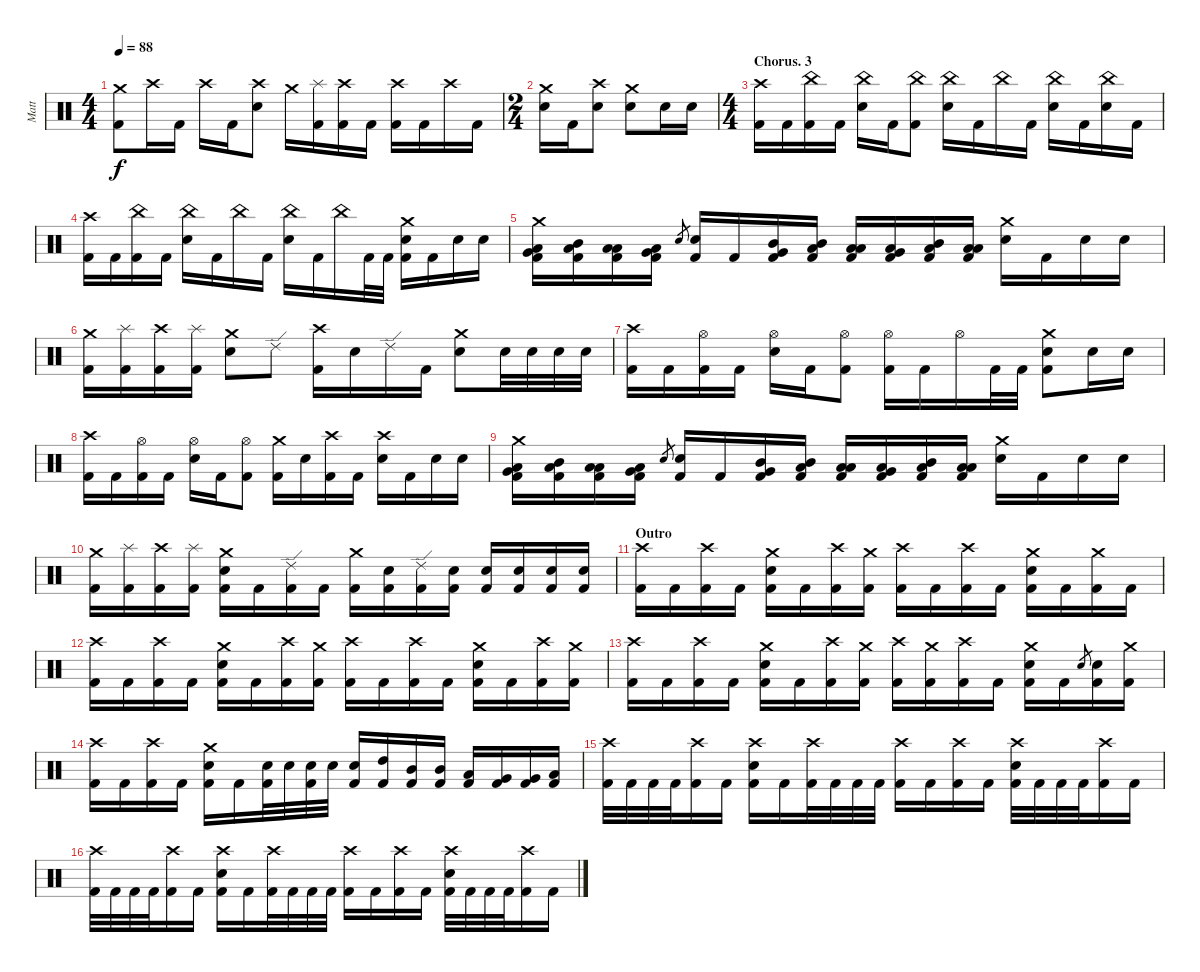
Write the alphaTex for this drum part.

\track ("Matt" "Matt") {instrument percussion}
\staff {score}
\articulation defaults
\ts (4 4)
\tempo 88
\clef neutral
\ks c
("Crash medium (hit)" "Kick (hit) 2").8{dy f volume 14} "Crash high (hit)".16 "Kick (hit) 2".16 "Crash high (hit)".16 "Kick (hit) 2".16 ("Crash high (hit)" "Electric Snare (hit)").8 "Crash medium (hit)".16 ("Splash (hit)" "Kick (hit) 2").16 ("Crash high (hit)" "Kick (hit) 2").16 "Kick (hit) 2".16 ("Crash high (hit)" "Kick (hit) 2").16 "Kick (hit) 2".16 "Crash high (hit)".16 "Kick (hit) 2".16 |
\ts (2 4)
("Crash medium (hit)" "Electric Snare (hit)").16 "Kick (hit) 2".16 ("Crash high (hit)" "Electric Snare (hit)").8 ("Crash medium (hit)" "Electric Snare (hit)").8 "Electric Snare (hit)".16 "Electric Snare (hit)".16 |
\ts (4 4)
\section ("" "Chorus. 3")
("Crash high (hit)" "Kick (hit) 2").16 "Kick (hit) 2".16 ("China (hit)" "Kick (hit) 2").16 "Kick (hit) 2".16 ("China (hit)" "Electric Snare (hit)").16 "Kick (hit) 2".16 ("China (hit)" "Kick (hit) 2").8 ("China (hit)" "Electric Snare (hit)").16 "Kick (hit) 2".16 "China (hit)".16 "Kick (hit) 2".16 ("China (hit)" "Electric Snare (hit)").16 "Kick (hit) 2".16 ("China (hit)" "Electric Snare (hit)").16 "Kick (hit) 2".16 |
("Crash high (hit)" "Kick (hit) 2").16 "Kick (hit) 2".16 ("China (hit)" "Kick (hit) 2").16 "Kick (hit) 2".16 ("China (hit)" "Electric Snare (hit)").16 "Kick (hit) 2".16 "China (hit)".16 "Kick (hit) 2".16 ("China (hit)" "Electric Snare (hit)").16 "Kick (hit) 2".16 "China (hit)".16 "Kick (hit) 2".32 "Kick (hit) 2".32 ("Crash medium (hit)" "Electric Snare (hit)" "Kick (hit) 2").16 "Kick (hit) 2".16 "Electric Snare (hit)".16 "Electric Snare (hit)".16 |
("Crash medium (hit)" "Low Tom (hit)" "Very Low Tom (hit)" "Kick (hit) 2").16 ("Low Tom (hit)" "Mid Tom (hit)" "Kick (hit) 2").16 ("Low Tom (hit)" "Low Tom (hit)" "Kick (hit) 2").16 ("Low Tom (hit)" "Very Low Tom (hit)" "Kick (hit) 2").16 "Electric Snare (hit)".8{gr} ("Electric Snare (hit)" "Kick (hit) 2").16 "Kick (hit) 2".16 ("Mid Tom (hit)" "Very Low Tom (hit)" "Kick (hit) 2").16 ("Low Tom (hit)" "Mid Tom (hit)" "Kick (hit) 2").16 ("Low Tom (hit)" "Low Tom (hit)" "Kick (hit) 2").16 ("Low Tom (hit)" "Very Low Tom (hit)" "Kick (hit) 2").16 ("Low Tom (hit)" "Mid Tom (hit)" "Kick (hit) 2").16 ("Low Tom (hit)" "Low Tom (hit)" "Kick (hit) 2").16 ("Crash medium (hit)" "Electric Snare (hit)").16 "Kick (hit) 2".16 "Electric Snare (hit)".16 "Electric Snare (hit)".16 |
("Crash medium (hit)" "Kick (hit) 2").16 ("Splash (hit)" "Kick (hit) 2").16 ("Crash high (hit)" "Kick (hit) 2").16 ("Splash (hit)" "Kick (hit) 2").16 ("Crash medium (hit)" "Electric Snare (hit)").8 "Ride (edge) 2".8 ("Crash high (hit)" "Kick (hit) 2").16 "Electric Snare (hit)".16 "Ride (edge) 2".16 "Kick (hit) 2".16 ("Crash medium (hit)" "Electric Snare (hit)").8 "Electric Snare (hit)".32 "Electric Snare (hit)".32 "Electric Snare (hit)".32 "Electric Snare (hit)".32 |
("Crash high (hit)" "Kick (hit) 2").16 "Kick (hit) 2".16 ("Hi-Hat (open)" "Kick (hit) 2").16 "Kick (hit) 2".16 ("Hi-Hat (open)" "Electric Snare (hit)").16 "Kick (hit) 2".16 ("Hi-Hat (open)" "Kick (hit) 2").8 ("Hi-Hat (open)" "Kick (hit) 2").16 "Kick (hit) 2".16 "Hi-Hat (open)".16 "Kick (hit) 2".32 "Kick (hit) 2".32 ("Crash medium (hit)" "Electric Snare (hit)" "Kick (hit) 2").8 "Electric Snare (hit)".16 "Electric Snare (hit)".16 |
("Crash high (hit)" "Kick (hit) 2").16 "Kick (hit) 2".16 ("Hi-Hat (open)" "Kick (hit) 2").16 "Kick (hit) 2".16 ("Hi-Hat (open)" "Electric Snare (hit)").16 "Kick (hit) 2".16 ("Hi-Hat (open)" "Kick (hit) 2").8 ("Crash medium (hit)" "Kick (hit) 2").16 "Electric Snare (hit)".16 ("Crash high (hit)" "Kick (hit) 2").16 "Kick (hit) 2".16 ("Crash high (hit)" "Electric Snare (hit)").16 "Kick (hit) 2".16 "Electric Snare (hit)".16 "Electric Snare (hit)".16 |
("Crash medium (hit)" "Low Tom (hit)" "Very Low Tom (hit)" "Kick (hit) 2").16 ("Low Tom (hit)" "Mid Tom (hit)" "Kick (hit) 2").16 ("Low Tom (hit)" "Low Tom (hit)" "Kick (hit) 2").16 ("Low Tom (hit)" "Very Low Tom (hit)" "Kick (hit) 2").16 "Electric Snare (hit)".8{gr} ("Electric Snare (hit)" "Kick (hit) 2").16 "Kick (hit) 2".16 ("Mid Tom (hit)" "Very Low Tom (hit)" "Kick (hit) 2").16 ("Low Tom (hit)" "Mid Tom (hit)" "Kick (hit) 2").16 ("Low Tom (hit)" "Low Tom (hit)" "Kick (hit) 2").16 ("Low Tom (hit)" "Very Low Tom (hit)" "Kick (hit) 2").16 ("Low Tom (hit)" "Mid Tom (hit)" "Kick (hit) 2").16 ("Low Tom (hit)" "Low Tom (hit)" "Kick (hit) 2").16 ("Crash medium (hit)" "Electric Snare (hit)").16 "Kick (hit) 2".16 "Electric Snare (hit)".16 "Electric Snare (hit)".16 |
("Crash medium (hit)" "Kick (hit) 2").16 ("Splash (hit)" "Kick (hit) 2").16 ("Crash high (hit)" "Kick (hit) 2").16 ("Splash (hit)" "Kick (hit) 2").16 ("Crash medium (hit)" "Electric Snare (hit)" "Kick (hit) 2").16 "Kick (hit) 2".16 ("Ride (edge) 2" "Kick (hit) 2").16 "Kick (hit) 2".16 ("Crash medium (hit)" "Kick (hit) 2").16 ("Electric Snare (hit)" "Kick (hit) 2").16 ("Ride (edge) 2" "Kick (hit) 2").16 ("Electric Snare (hit)" "Kick (hit) 2").16 ("Electric Snare (hit)" "Kick (hit) 2").16 ("Electric Snare (hit)" "Kick (hit) 2").16 ("Electric Snare (hit)" "Kick (hit) 2").16 ("Electric Snare (hit)" "Kick (hit) 2").16 |
\section ("" "Outro")
("Crash high (hit)" "Kick (hit) 2").16 "Kick (hit) 2".16 ("Crash high (hit)" "Kick (hit) 2").16 "Kick (hit) 2".16 ("Crash medium (hit)" "Electric Snare (hit)" "Kick (hit) 2").16 "Kick (hit) 2".16 ("Crash high (hit)" "Kick (hit) 2").16 ("Crash medium (hit)" "Kick (hit) 2").16 ("Crash high (hit)" "Kick (hit) 2").16 "Kick (hit) 2".16 ("Crash high (hit)" "Kick (hit) 2").16 "Kick (hit) 2".16 ("Crash medium (hit)" "Electric Snare (hit)" "Kick (hit) 2").16 "Kick (hit) 2".16 ("Crash medium (hit)" "Kick (hit) 2").16 "Kick (hit) 2".16 |
("Crash high (hit)" "Kick (hit) 2").16 "Kick (hit) 2".16 ("Crash high (hit)" "Kick (hit) 2").16 "Kick (hit) 2".16 ("Crash medium (hit)" "Electric Snare (hit)" "Kick (hit) 2").16 "Kick (hit) 2".16 ("Crash high (hit)" "Kick (hit) 2").16 ("Crash medium (hit)" "Kick (hit) 2").16 ("Crash high (hit)" "Kick (hit) 2").16 "Kick (hit) 2".16 ("Crash high (hit)" "Kick (hit) 2").16 "Kick (hit) 2".16 ("Crash medium (hit)" "Electric Snare (hit)" "Kick (hit) 2").16 "Kick (hit) 2".16 ("Crash high (hit)" "Kick (hit) 2").16 ("Crash medium (hit)" "Kick (hit) 2").16 |
("Crash high (hit)" "Kick (hit) 2").16 "Kick (hit) 2".16 ("Crash high (hit)" "Kick (hit) 2").16 "Kick (hit) 2".16 ("Crash medium (hit)" "Electric Snare (hit)" "Kick (hit) 2").16 "Kick (hit) 2".16 ("Crash high (hit)" "Kick (hit) 2").16 ("Crash medium (hit)" "Kick (hit) 2").16 ("Crash high (hit)" "Kick (hit) 2").16 ("Crash medium (hit)" "Kick (hit) 2").16 ("Crash high (hit)" "Kick (hit) 2").16 "Kick (hit) 2".16 ("Crash medium (hit)" "Electric Snare (hit)" "Kick (hit) 2").16 "Kick (hit) 2".16 "Electric Snare (hit)".8{gr} ("Electric Snare (hit)" "Kick (hit) 2").16 ("Crash medium (hit)" "Kick (hit) 2").16 |
("Crash high (hit)" "Kick (hit) 2").16 "Kick (hit) 2".16 ("Crash high (hit)" "Kick (hit) 2").16 "Kick (hit) 2".16 ("Crash medium (hit)" "Electric Snare (hit)" "Kick (hit) 2").16 "Kick (hit) 2".16 ("Electric Snare (hit)" "Kick (hit) 2").32 "Electric Snare (hit)".32 ("Electric Snare (hit)" "Kick (hit) 2").32 "Electric Snare (hit)".32 ("Electric Snare (hit)" "Kick (hit) 2").16 ("High Tom (hit)" "Kick (hit) 2").16 ("Mid Tom (hit)" "Kick (hit) 2").16 ("Mid Tom (hit)" "Kick (hit) 2").16 ("Low Tom (hit)" "Kick (hit) 2").16 ("Very Low Tom (hit)" "Kick (hit) 2").16 ("Very Low Tom (hit)" "Kick (hit) 2").16 ("Low Floor Tom (hit)" "Kick (hit) 2").16 |
("Crash high (hit)" "Kick (hit) 2").32 "Kick (hit) 2".32 "Kick (hit) 2".32 "Kick (hit) 2".32 ("Crash high (hit)" "Kick (hit) 2").16 "Kick (hit) 2".16 ("Crash high (hit)" "Electric Snare (hit)" "Kick (hit) 2").16 "Kick (hit) 2".16 ("Crash high (hit)" "Kick (hit) 2").32 "Kick (hit) 2".32 "Kick (hit) 2".32 "Kick (hit) 2".32 ("Crash high (hit)" "Kick (hit) 2").16 "Kick (hit) 2".16 ("Crash high (hit)" "Kick (hit) 2").16 "Kick (hit) 2".16 ("Crash high (hit)" "Electric Snare (hit)" "Kick (hit) 2").32 "Kick (hit) 2".32 "Kick (hit) 2".32 "Kick (hit) 2".32 ("Crash high (hit)" "Kick (hit) 2").16 "Kick (hit) 2".16 |
("Crash high (hit)" "Kick (hit) 2").32 "Kick (hit) 2".32 "Kick (hit) 2".32 "Kick (hit) 2".32 ("Crash high (hit)" "Kick (hit) 2").16 "Kick (hit) 2".16 ("Crash high (hit)" "Electric Snare (hit)" "Kick (hit) 2").16 "Kick (hit) 2".16 ("Crash high (hit)" "Kick (hit) 2").32 "Kick (hit) 2".32 "Kick (hit) 2".32 "Kick (hit) 2".32 ("Crash high (hit)" "Kick (hit) 2").16 "Kick (hit) 2".16 ("Crash high (hit)" "Kick (hit) 2").16 "Kick (hit) 2".16 ("Crash high (hit)" "Electric Snare (hit)" "Kick (hit) 2").32 "Kick (hit) 2".32 "Kick (hit) 2".32 "Kick (hit) 2".32 ("Crash high (hit)" "Kick (hit) 2").16 "Kick (hit) 2".16
